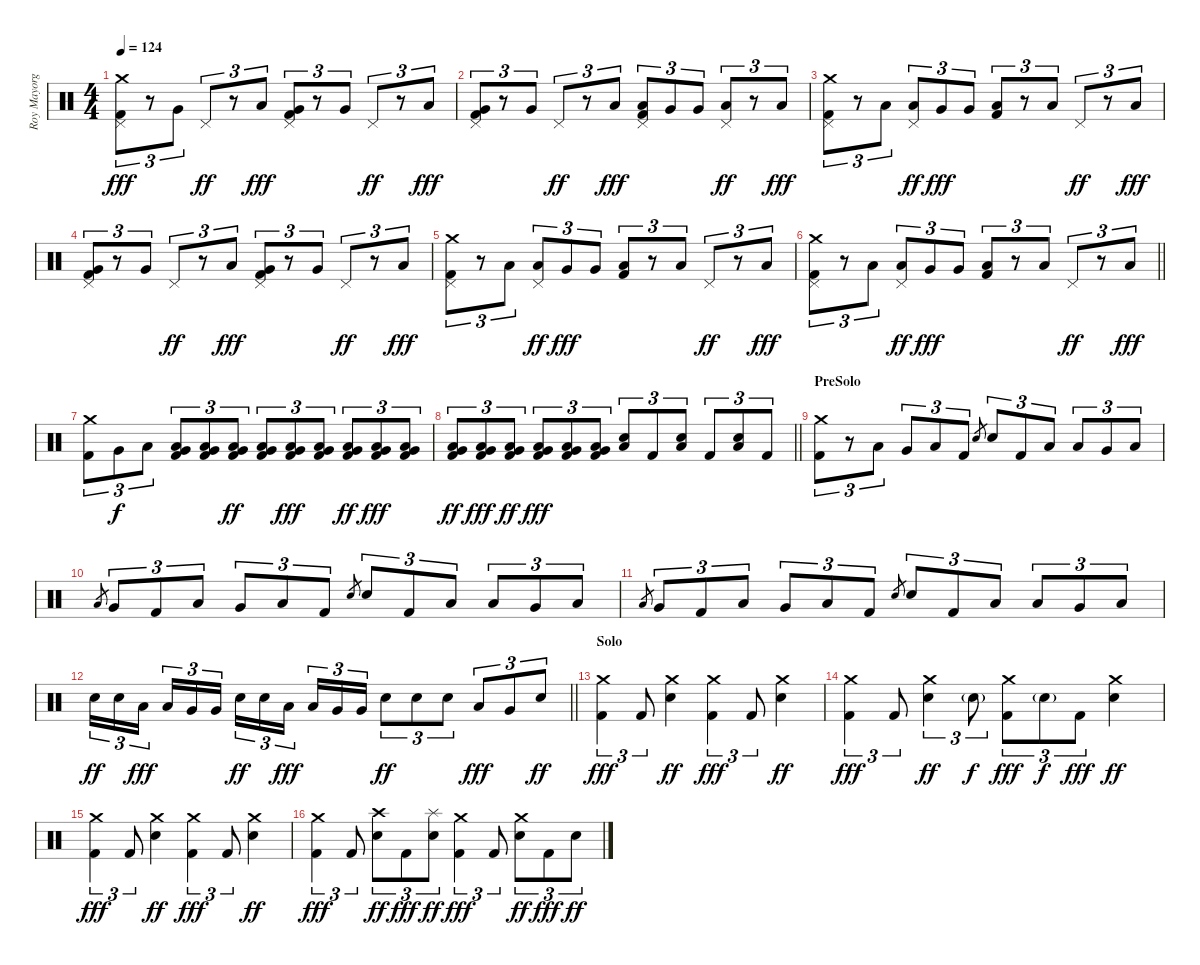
\track ("Roy Mayorga" "Roy Mayorg") {instrument percussion}
\staff {score}
\articulation defaults
\ts (4 4)
\tempo 124
\clef neutral
\ks c
("Crash medium (hit)" "Pedal Hi-Hat (hit)" "Kick (hit) 2").8{tu (3 2) dy fff} r.8{tu (3 2)} "Very Low Tom (hit)".8{tu (3 2)} "Pedal Hi-Hat (hit)".8{tu (3 2) dy ff} r.8{tu (3 2)} "Low Tom (hit)".8{tu (3 2) dy fff} ("Very Low Tom (hit)" "Pedal Hi-Hat (hit)" "Kick (hit) 2").8{tu (3 2)} r.8{tu (3 2)} "Very Low Tom (hit)".8{tu (3 2)} "Pedal Hi-Hat (hit)".8{tu (3 2) dy ff} r.8{tu (3 2)} "Low Tom (hit)".8{tu (3 2) dy fff} |
("Very Low Tom (hit)" "Pedal Hi-Hat (hit)" "Kick (hit) 2").8{tu (3 2)} r.8{tu (3 2)} "Very Low Tom (hit)".8{tu (3 2)} "Pedal Hi-Hat (hit)".8{tu (3 2) dy ff} r.8{tu (3 2)} "Low Tom (hit)".8{tu (3 2) dy fff} ("Low Tom (hit)" "Pedal Hi-Hat (hit)" "Kick (hit) 2").8{tu (3 2)} "Very Low Tom (hit)".8{tu (3 2)} "Very Low Tom (hit)".8{tu (3 2)} ("Low Floor Tom (hit)" "Pedal Hi-Hat (hit)").8{tu (3 2) dy ff} r.8{tu (3 2)} "Low Tom (hit)".8{tu (3 2) dy fff} |
("Crash medium (hit)" "Pedal Hi-Hat (hit)" "Kick (hit) 2").8{tu (3 2)} r.8{tu (3 2)} "Low Tom (hit)".8{tu (3 2)} ("Low Tom (hit)" "Pedal Hi-Hat (hit)").8{tu (3 2) dy ff} "Very Low Tom (hit)".8{tu (3 2) dy fff} "Very Low Tom (hit)".8{tu (3 2)} ("Low Floor Tom (hit)" "Kick (hit) 2").8{tu (3 2)} r.8{tu (3 2)} "Low Floor Tom (hit)".8{tu (3 2)} "Pedal Hi-Hat (hit)".8{tu (3 2) dy ff} r.8{tu (3 2)} "Low Tom (hit)".8{tu (3 2) dy fff} |
("Very Low Tom (hit)" "Pedal Hi-Hat (hit)" "Kick (hit) 2").8{tu (3 2)} r.8{tu (3 2)} "Very Low Tom (hit)".8{tu (3 2)} "Pedal Hi-Hat (hit)".8{tu (3 2) dy ff} r.8{tu (3 2)} "Low Tom (hit)".8{tu (3 2) dy fff} ("Very Low Tom (hit)" "Pedal Hi-Hat (hit)" "Kick (hit) 2").8{tu (3 2)} r.8{tu (3 2)} "Very Low Tom (hit)".8{tu (3 2)} "Pedal Hi-Hat (hit)".8{tu (3 2) dy ff} r.8{tu (3 2)} "Low Tom (hit)".8{tu (3 2) dy fff} |
("Crash medium (hit)" "Pedal Hi-Hat (hit)" "Kick (hit) 2").8{tu (3 2)} r.8{tu (3 2)} "Low Tom (hit)".8{tu (3 2)} ("Low Tom (hit)" "Pedal Hi-Hat (hit)").8{tu (3 2) dy ff} "Very Low Tom (hit)".8{tu (3 2) dy fff} "Very Low Tom (hit)".8{tu (3 2)} ("Low Floor Tom (hit)" "Kick (hit) 2").8{tu (3 2)} r.8{tu (3 2)} "Low Floor Tom (hit)".8{tu (3 2)} "Pedal Hi-Hat (hit)".8{tu (3 2) dy ff} r.8{tu (3 2)} "Low Tom (hit)".8{tu (3 2) dy fff} |
\barLineRight lightlight
("Crash medium (hit)" "Pedal Hi-Hat (hit)" "Kick (hit) 2").8{tu (3 2)} r.8{tu (3 2)} "Low Tom (hit)".8{tu (3 2)} ("Low Tom (hit)" "Pedal Hi-Hat (hit)").8{tu (3 2) dy ff} "Very Low Tom (hit)".8{tu (3 2) dy fff} "Very Low Tom (hit)".8{tu (3 2)} ("Low Floor Tom (hit)" "Kick (hit) 2").8{tu (3 2)} r.8{tu (3 2)} "Low Floor Tom (hit)".8{tu (3 2)} "Pedal Hi-Hat (hit)".8{tu (3 2) dy ff} r.8{tu (3 2)} "Low Tom (hit)".8{tu (3 2) dy fff} |
("Crash medium (hit)" "Kick (hit) 2").8{tu (3 2)} "Very Low Tom (hit)".8{tu (3 2) dy f} "Low Floor Tom (hit)".8{tu (3 2)} ("Very Low Tom (hit)" "Low Floor Tom (hit)" "Kick (hit) 2").8{tu (3 2)} ("Very Low Tom (hit)" "Low Floor Tom (hit)" "Kick (hit) 2").8{tu (3 2)} ("Very Low Tom (hit)" "Low Floor Tom (hit)" "Kick (hit) 2").8{tu (3 2) dy ff} ("Very Low Tom (hit)" "Low Floor Tom (hit)" "Kick (hit) 2").8{tu (3 2)} ("Very Low Tom (hit)" "Low Floor Tom (hit)" "Kick (hit) 2").8{tu (3 2) dy fff} ("Very Low Tom (hit)" "Low Floor Tom (hit)" "Kick (hit) 2").8{tu (3 2)} ("Very Low Tom (hit)" "Low Floor Tom (hit)" "Kick (hit) 2").8{tu (3 2) dy ff} ("Very Low Tom (hit)" "Low Floor Tom (hit)" "Kick (hit) 2").8{tu (3 2) dy fff} ("Very Low Tom (hit)" "Low Floor Tom (hit)" "Kick (hit) 2").8{tu (3 2)} |
\barLineRight lightlight
("Very Low Tom (hit)" "Low Floor Tom (hit)" "Kick (hit) 2").8{tu (3 2) dy ff} ("Very Low Tom (hit)" "Low Floor Tom (hit)" "Kick (hit) 2").8{tu (3 2) dy fff} ("Very Low Tom (hit)" "Low Floor Tom (hit)" "Kick (hit) 2").8{tu (3 2) dy ff} ("Very Low Tom (hit)" "Low Floor Tom (hit)" "Kick (hit) 2").8{tu (3 2) dy fff} ("Very Low Tom (hit)" "Low Floor Tom (hit)" "Kick (hit) 2").8{tu (3 2)} ("Very Low Tom (hit)" "Low Floor Tom (hit)" "Kick (hit) 2").8{tu (3 2)} ("Electric Snare (hit)" "Low Floor Tom (hit)").8{tu (3 2)} "Kick (hit) 2".8{tu (3 2)} ("Electric Snare (hit)" "Low Floor Tom (hit)").8{tu (3 2)} "Kick (hit) 2".8{tu (3 2)} ("Electric Snare (hit)" "Low Floor Tom (hit)").8{tu (3 2)} "Kick (hit) 2".8{tu (3 2)} |
\section ("" "PreSolo")
("Crash medium (hit)" "Kick (hit) 2").8{tu (3 2)} r.8{tu (3 2)} "Low Tom (hit)".8{tu (3 2)} "Very Low Tom (hit)".8{tu (3 2)} "Low Floor Tom (hit)".8{tu (3 2)} "Kick (hit) 2".8{tu (3 2)} "Electric Snare (hit)".8{gr} "Electric Snare (hit)".8{tu (3 2)} "Kick (hit) 2".8{tu (3 2)} "Low Tom (hit)".8{tu (3 2)} "Low Tom (hit)".8{tu (3 2)} "Very Low Tom (hit)".8{tu (3 2)} "Low Floor Tom (hit)".8{tu (3 2)} |
"Low Tom (hit)".8{gr} "Very Low Tom (hit)".8{tu (3 2)} "Kick (hit) 2".8{tu (3 2)} "Low Tom (hit)".8{tu (3 2)} "Very Low Tom (hit)".8{tu (3 2)} "Low Floor Tom (hit)".8{tu (3 2)} "Kick (hit) 2".8{tu (3 2)} "Electric Snare (hit)".8{gr} "Electric Snare (hit)".8{tu (3 2)} "Kick (hit) 2".8{tu (3 2)} "Low Tom (hit)".8{tu (3 2)} "Low Tom (hit)".8{tu (3 2)} "Very Low Tom (hit)".8{tu (3 2)} "Low Floor Tom (hit)".8{tu (3 2)} |
"Low Tom (hit)".8{gr} "Very Low Tom (hit)".8{tu (3 2)} "Kick (hit) 2".8{tu (3 2)} "Low Tom (hit)".8{tu (3 2)} "Very Low Tom (hit)".8{tu (3 2)} "Low Floor Tom (hit)".8{tu (3 2)} "Kick (hit) 2".8{tu (3 2)} "Electric Snare (hit)".8{gr} "Electric Snare (hit)".8{tu (3 2)} "Kick (hit) 2".8{tu (3 2)} "Low Tom (hit)".8{tu (3 2)} "Low Tom (hit)".8{tu (3 2)} "Very Low Tom (hit)".8{tu (3 2)} "Low Floor Tom (hit)".8{tu (3 2)} |
\barLineRight lightlight "Electric Snare (hit)".16{tu (3 2) dy ff} "Electric Snare (hit)".16{tu (3 2)} "Low Tom (hit)".16{tu (3 2) dy fff beam splitsecondary} "Low Tom (hit)".16{tu (3 2)} "Very Low Tom (hit)".16{tu (3 2)} "Very Low Tom (hit)".16{tu (3 2)} "Electric Snare (hit)".16{tu (3 2) dy ff} "Electric Snare (hit)".16{tu (3 2)} "Low Tom (hit)".16{tu (3 2) dy fff beam splitsecondary} "Low Tom (hit)".16{tu (3 2)} "Very Low Tom (hit)".16{tu (3 2)} "Very Low Tom (hit)".16{tu (3 2)} "Electric Snare (hit)".8{tu (3 2) dy ff} "Electric Snare (hit)".8{tu (3 2)} "Electric Snare (hit)".8{tu (3 2)} "Low Tom (hit)".8{tu (3 2) dy fff} "Very Low Tom (hit)".8{tu (3 2)} "Electric Snare (hit)".8{tu (3 2) dy ff}
|
\section ("" "Solo")
("Crash medium (hit)" "Kick (hit) 2").4{tu (3 2) dy fff} "Kick (hit) 2".8{tu (3 2)} ("Crash medium (hit)" "Electric Snare (hit)").4{dy ff} ("Crash medium (hit)" "Kick (hit) 2").4{tu (3 2) dy fff} "Kick (hit) 2".8{tu (3 2)} ("Crash medium (hit)" "Electric Snare (hit)").4{dy ff} |
("Crash medium (hit)" "Kick (hit) 2").4{tu (3 2) dy fff} "Kick (hit) 2".8{tu (3 2)} ("Crash medium (hit)" "Electric Snare (hit)").4{tu (3 2) dy ff} "Electric Snare (hit)"{g}.8{tu (3 2) dy f} ("Crash medium (hit)" "Kick (hit) 2").8{tu (3 2) dy fff} "Electric Snare (hit)"{g}.8{tu (3 2) dy f} "Kick (hit) 2".8{tu (3 2) dy fff} ("Crash medium (hit)" "Electric Snare (hit)").4{dy ff} |
("Crash medium (hit)" "Kick (hit) 2").4{tu (3 2) dy fff} "Kick (hit) 2".8{tu (3 2)} ("Crash medium (hit)" "Electric Snare (hit)").4{dy ff} ("Crash medium (hit)" "Kick (hit) 2").4{tu (3 2) dy fff} "Kick (hit) 2".8{tu (3 2)} ("Crash medium (hit)" "Electric Snare (hit)").4{dy ff} |
("Crash medium (hit)" "Kick (hit) 2").4{tu (3 2) dy fff} "Kick (hit) 2".8{tu (3 2)} ("Crash high (hit)" "Electric Snare (hit)").8{tu (3 2) dy ff} "Kick (hit) 2".8{tu (3 2) dy fff} ("Splash (hit)" "Electric Snare (hit)").8{tu (3 2) dy ff} ("Crash medium (hit)" "Kick (hit) 2").4{tu (3 2) dy fff} "Kick (hit) 2".8{tu (3 2)} ("Crash medium (hit)" "Electric Snare (hit)").8{tu (3 2) dy ff} "Kick (hit) 2".8{tu (3 2) dy fff} "Electric Snare (hit)".8{tu (3 2) dy ff}
